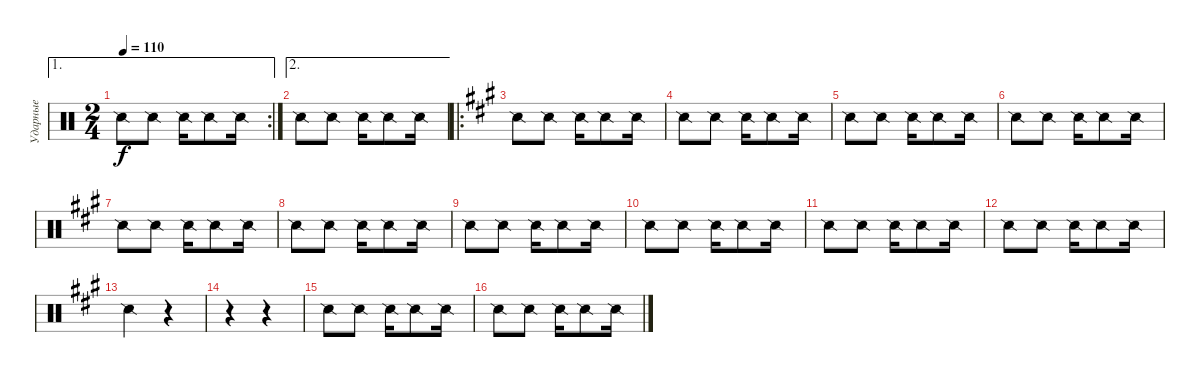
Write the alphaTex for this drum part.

\track ("Ударные" "Ударные") {instrument percussion}
\staff {score}
\articulation defaults
\ae 1
\rc 2
\ts (2 4)
\tempo 110
\clef neutral
\ks c "Snare (side stick) 2".8{dy f} "Snare (side stick) 2".8 "Snare (side stick) 2".16 "Snare (side stick) 2".8 "Snare (side stick) 2".16
|
\ae 2 "Snare (side stick) 2".8 "Snare (side stick) 2".8 "Snare (side stick) 2".16 "Snare (side stick) 2".8 "Snare (side stick) 2".16
|
\ro
\ks a "Snare (side stick) 2".8 "Snare (side stick) 2".8 "Snare (side stick) 2".16 "Snare (side stick) 2".8 "Snare (side stick) 2".16
|
"Snare (side stick) 2".8 "Snare (side stick) 2".8 "Snare (side stick) 2".16 "Snare (side stick) 2".8 "Snare (side stick) 2".16 |
"Snare (side stick) 2".8 "Snare (side stick) 2".8 "Snare (side stick) 2".16 "Snare (side stick) 2".8 "Snare (side stick) 2".16 |
"Snare (side stick) 2".8 "Snare (side stick) 2".8 "Snare (side stick) 2".16 "Snare (side stick) 2".8 "Snare (side stick) 2".16 |
"Snare (side stick) 2".8 "Snare (side stick) 2".8 "Snare (side stick) 2".16 "Snare (side stick) 2".8 "Snare (side stick) 2".16 |
"Snare (side stick) 2".8 "Snare (side stick) 2".8 "Snare (side stick) 2".16 "Snare (side stick) 2".8 "Snare (side stick) 2".16 |
"Snare (side stick) 2".8 "Snare (side stick) 2".8 "Snare (side stick) 2".16 "Snare (side stick) 2".8 "Snare (side stick) 2".16 |
"Snare (side stick) 2".8 "Snare (side stick) 2".8 "Snare (side stick) 2".16 "Snare (side stick) 2".8 "Snare (side stick) 2".16 |
"Snare (side stick) 2".8 "Snare (side stick) 2".8 "Snare (side stick) 2".16 "Snare (side stick) 2".8 "Snare (side stick) 2".16 |
"Snare (side stick) 2".8 "Snare (side stick) 2".8 "Snare (side stick) 2".16 "Snare (side stick) 2".8 "Snare (side stick) 2".16 |
"Snare (side stick) 2".4 r.4 |
r.4 r.4 |
"Snare (side stick) 2".8 "Snare (side stick) 2".8 "Snare (side stick) 2".16 "Snare (side stick) 2".8 "Snare (side stick) 2".16 |
"Snare (side stick) 2".8 "Snare (side stick) 2".8 "Snare (side stick) 2".16 "Snare (side stick) 2".8 "Snare (side stick) 2".16
